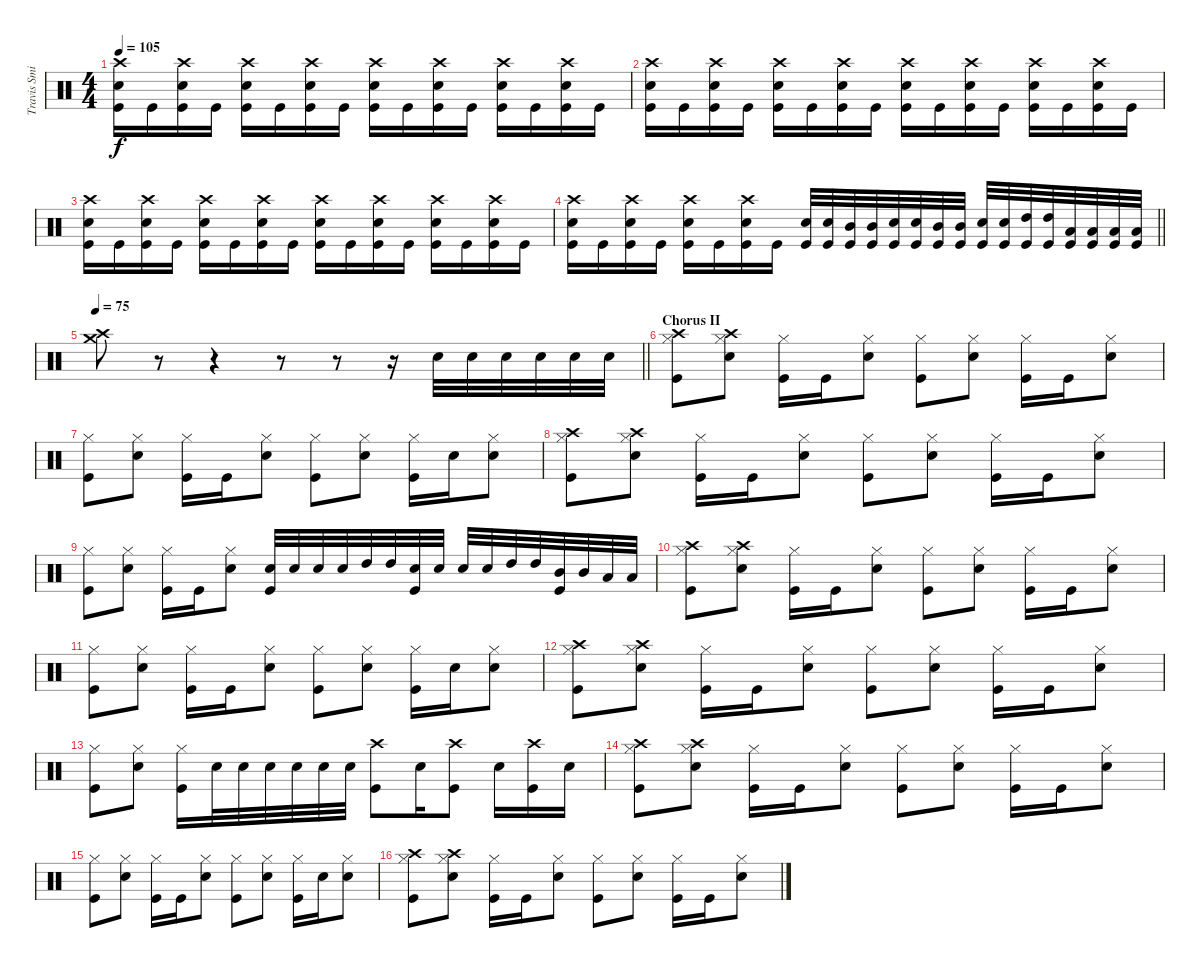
\track ("Travis Smith" "Travis Smi") {instrument percussion}
\staff {score}
\articulation defaults
\ts (4 4)
\tempo 105
\clef neutral
\ks c
("Crash high (hit)" "Snare (hit) 2" "Kick (hit)").16{dy f} "Kick (hit)".16 ("Crash high (hit)" "Snare (hit) 2" "Kick (hit)").16 "Kick (hit)".16 ("Crash high (hit)" "Snare (hit) 2" "Kick (hit)").16 "Kick (hit)".16 ("Crash high (hit)" "Snare (hit) 2" "Kick (hit)").16 "Kick (hit)".16 ("Crash high (hit)" "Snare (hit) 2" "Kick (hit)").16 "Kick (hit)".16 ("Crash high (hit)" "Snare (hit) 2" "Kick (hit)").16 "Kick (hit)".16 ("Crash high (hit)" "Snare (hit) 2" "Kick (hit)").16 "Kick (hit)".16 ("Crash high (hit)" "Snare (hit) 2" "Kick (hit)").16 "Kick (hit)".16 |
("Crash high (hit)" "Snare (hit) 2" "Kick (hit)").16 "Kick (hit)".16 ("Crash high (hit)" "Snare (hit) 2" "Kick (hit)").16 "Kick (hit)".16 ("Crash high (hit)" "Snare (hit) 2" "Kick (hit)").16 "Kick (hit)".16 ("Crash high (hit)" "Snare (hit) 2" "Kick (hit)").16 "Kick (hit)".16 ("Crash high (hit)" "Snare (hit) 2" "Kick (hit)").16 "Kick (hit)".16 ("Crash high (hit)" "Snare (hit) 2" "Kick (hit)").16 "Kick (hit)".16 ("Crash high (hit)" "Snare (hit) 2" "Kick (hit)").16 "Kick (hit)".16 ("Crash high (hit)" "Snare (hit) 2" "Kick (hit)").16 "Kick (hit)".16 |
("Crash high (hit)" "Snare (hit) 2" "Kick (hit)").16 "Kick (hit)".16 ("Crash high (hit)" "Snare (hit) 2" "Kick (hit)").16 "Kick (hit)".16 ("Crash high (hit)" "Snare (hit) 2" "Kick (hit)").16 "Kick (hit)".16 ("Crash high (hit)" "Snare (hit) 2" "Kick (hit)").16 "Kick (hit)".16 ("Crash high (hit)" "Snare (hit) 2" "Kick (hit)").16 "Kick (hit)".16 ("Crash high (hit)" "Snare (hit) 2" "Kick (hit)").16 "Kick (hit)".16 ("Crash high (hit)" "Snare (hit) 2" "Kick (hit)").16 "Kick (hit)".16 ("Crash high (hit)" "Snare (hit) 2" "Kick (hit)").16 "Kick (hit)".16 |
\barLineRight lightlight
("Crash high (hit)" "Snare (hit) 2" "Kick (hit)").16 "Kick (hit)".16 ("Crash high (hit)" "Snare (hit) 2" "Kick (hit)").16 "Kick (hit)".16 ("Crash high (hit)" "Snare (hit) 2" "Kick (hit)").16 "Kick (hit)".16 ("Crash high (hit)" "Snare (hit) 2" "Kick (hit)").16 "Kick (hit)".16 ("Snare (hit) 2" "Kick (hit)").32 ("Snare (hit) 2" "Kick (hit)").32 ("Mid Tom (hit)" "Kick (hit)").32 ("Mid Tom (hit)" "Kick (hit)").32 ("Snare (hit) 2" "Kick (hit)").32 ("Snare (hit) 2" "Kick (hit)").32 ("Mid Tom (hit)" "Kick (hit)").32 ("Mid Tom (hit)" "Kick (hit)").32 ("Snare (hit) 2" "Kick (hit)").32 ("Snare (hit) 2" "Kick (hit)").32 ("High Tom (hit)" "Kick (hit)").32 ("High Tom (hit)" "Kick (hit)").32 ("Low Tom (hit)" "Kick (hit)").32 ("Low Tom (hit)" "Kick (hit)").32 ("Low Floor Tom (hit)" "Kick (hit)").32 ("Low Floor Tom (hit)" "Kick (hit)").32 |
\tempo 75
\barLineRight lightlight
("Crash medium (hit)" "Crash high (hit)").8 r.8 r.4 r.8 r.8 r.16 "Snare (hit) 2".32 "Snare (hit) 2".32 "Snare (hit) 2".32 "Snare (hit) 2".32 "Snare (hit) 2".32 "Snare (hit) 2".32 |
\section ("" "Chorus II")
("Crash high (hit)" "Hi-Hat (closed)" "Kick (hit)").8 ("Crash high (hit)" "Hi-Hat (closed)" "Snare (hit) 2").8 ("Hi-Hat (closed)" "Kick (hit)").16 "Kick (hit)".16 ("Hi-Hat (closed)" "Snare (hit) 2").8 ("Hi-Hat (closed)" "Kick (hit)").8 ("Hi-Hat (closed)" "Snare (hit) 2").8 ("Hi-Hat (closed)" "Kick (hit)").16 "Kick (hit)".16 ("Hi-Hat (closed)" "Snare (hit) 2").8 |
("Hi-Hat (closed)" "Kick (hit)").8 ("Hi-Hat (closed)" "Snare (hit) 2").8 ("Hi-Hat (closed)" "Kick (hit)").16 "Kick (hit)".16 ("Hi-Hat (closed)" "Snare (hit) 2").8 ("Hi-Hat (closed)" "Kick (hit)").8 ("Hi-Hat (closed)" "Snare (hit) 2").8 ("Hi-Hat (closed)" "Kick (hit)").16 "Snare (hit) 2".16 ("Hi-Hat (closed)" "Snare (hit) 2").8 |
("Crash high (hit)" "Hi-Hat (closed)" "Kick (hit)").8 ("Crash high (hit)" "Hi-Hat (closed)" "Snare (hit) 2").8 ("Hi-Hat (closed)" "Kick (hit)").16 "Kick (hit)".16 ("Hi-Hat (closed)" "Snare (hit) 2").8 ("Hi-Hat (closed)" "Kick (hit)").8 ("Hi-Hat (closed)" "Snare (hit) 2").8 ("Hi-Hat (closed)" "Kick (hit)").16 "Kick (hit)".16 ("Hi-Hat (closed)" "Snare (hit) 2").8 |
("Hi-Hat (closed)" "Kick (hit)").8 ("Hi-Hat (closed)" "Snare (hit) 2").8 ("Hi-Hat (closed)" "Kick (hit)").16 "Kick (hit)".16 ("Hi-Hat (closed)" "Snare (hit) 2").8 ("Snare (hit) 2" "Kick (hit)").32 "Snare (hit) 2".32 "Snare (hit) 2".32 "Snare (hit) 2".32 "High Tom (hit)".32 "High Tom (hit)".32 ("Snare (hit) 2" "Kick (hit)").32 "Snare (hit) 2".32 "Snare (hit) 2".32 "Snare (hit) 2".32 "High Tom (hit)".32 "High Tom (hit)".32 ("Mid Tom (hit)" "Kick (hit)").32 "Mid Tom (hit)".32 "Low Floor Tom (hit)".32 "Low Floor Tom (hit)".32 |
("Crash high (hit)" "Hi-Hat (closed)" "Kick (hit)").8 ("Crash high (hit)" "Hi-Hat (closed)" "Snare (hit) 2").8 ("Hi-Hat (closed)" "Kick (hit)").16 "Kick (hit)".16 ("Hi-Hat (closed)" "Snare (hit) 2").8 ("Hi-Hat (closed)" "Kick (hit)").8 ("Hi-Hat (closed)" "Snare (hit) 2").8 ("Hi-Hat (closed)" "Kick (hit)").16 "Kick (hit)".16 ("Hi-Hat (closed)" "Snare (hit) 2").8 |
("Hi-Hat (closed)" "Kick (hit)").8 ("Hi-Hat (closed)" "Snare (hit) 2").8 ("Hi-Hat (closed)" "Kick (hit)").16 "Kick (hit)".16 ("Hi-Hat (closed)" "Snare (hit) 2").8 ("Hi-Hat (closed)" "Kick (hit)").8 ("Hi-Hat (closed)" "Snare (hit) 2").8 ("Hi-Hat (closed)" "Kick (hit)").16 "Snare (hit) 2".16 ("Hi-Hat (closed)" "Snare (hit) 2").8 |
("Crash high (hit)" "Hi-Hat (closed)" "Kick (hit)").8 ("Crash high (hit)" "Hi-Hat (closed)" "Snare (hit) 2").8 ("Hi-Hat (closed)" "Kick (hit)").16 "Kick (hit)".16 ("Hi-Hat (closed)" "Snare (hit) 2").8 ("Hi-Hat (closed)" "Kick (hit)").8 ("Hi-Hat (closed)" "Snare (hit) 2").8 ("Hi-Hat (closed)" "Kick (hit)").16 "Kick (hit)".16 ("Hi-Hat (closed)" "Snare (hit) 2").8 |
("Hi-Hat (closed)" "Kick (hit)").8 ("Hi-Hat (closed)" "Snare (hit) 2").8 ("Hi-Hat (closed)" "Kick (hit)").16 "Snare (hit) 2".32 "Snare (hit) 2".32 "Snare (hit) 2".32 "Snare (hit) 2".32 "Snare (hit) 2".32 "Snare (hit) 2".32 ("Crash high (hit)" "Kick (hit)").8 "Snare (hit) 2".16 ("Crash high (hit)" "Kick (hit)").8 "Snare (hit) 2".16 ("Crash high (hit)" "Kick (hit)").16 "Snare (hit) 2".16 |
("Crash high (hit)" "Hi-Hat (closed)" "Kick (hit)").8 ("Crash high (hit)" "Hi-Hat (closed)" "Snare (hit) 2").8 ("Hi-Hat (closed)" "Kick (hit)").16 "Kick (hit)".16 ("Hi-Hat (closed)" "Snare (hit) 2").8 ("Hi-Hat (closed)" "Kick (hit)").8 ("Hi-Hat (closed)" "Snare (hit) 2").8 ("Hi-Hat (closed)" "Kick (hit)").16 "Kick (hit)".16 ("Hi-Hat (closed)" "Snare (hit) 2").8 |
("Hi-Hat (closed)" "Kick (hit)").8 ("Hi-Hat (closed)" "Snare (hit) 2").8 ("Hi-Hat (closed)" "Kick (hit)").16 "Kick (hit)".16 ("Hi-Hat (closed)" "Snare (hit) 2").8 ("Hi-Hat (closed)" "Kick (hit)").8 ("Hi-Hat (closed)" "Snare (hit) 2").8 ("Hi-Hat (closed)" "Kick (hit)").16 "Snare (hit) 2".16 ("Hi-Hat (closed)" "Snare (hit) 2").8 |
("Crash high (hit)" "Hi-Hat (closed)" "Kick (hit)").8 ("Crash high (hit)" "Hi-Hat (closed)" "Snare (hit) 2").8 ("Hi-Hat (closed)" "Kick (hit)").16 "Kick (hit)".16 ("Hi-Hat (closed)" "Snare (hit) 2").8 ("Hi-Hat (closed)" "Kick (hit)").8 ("Hi-Hat (closed)" "Snare (hit) 2").8 ("Hi-Hat (closed)" "Kick (hit)").16 "Kick (hit)".16 ("Hi-Hat (closed)" "Snare (hit) 2").8
